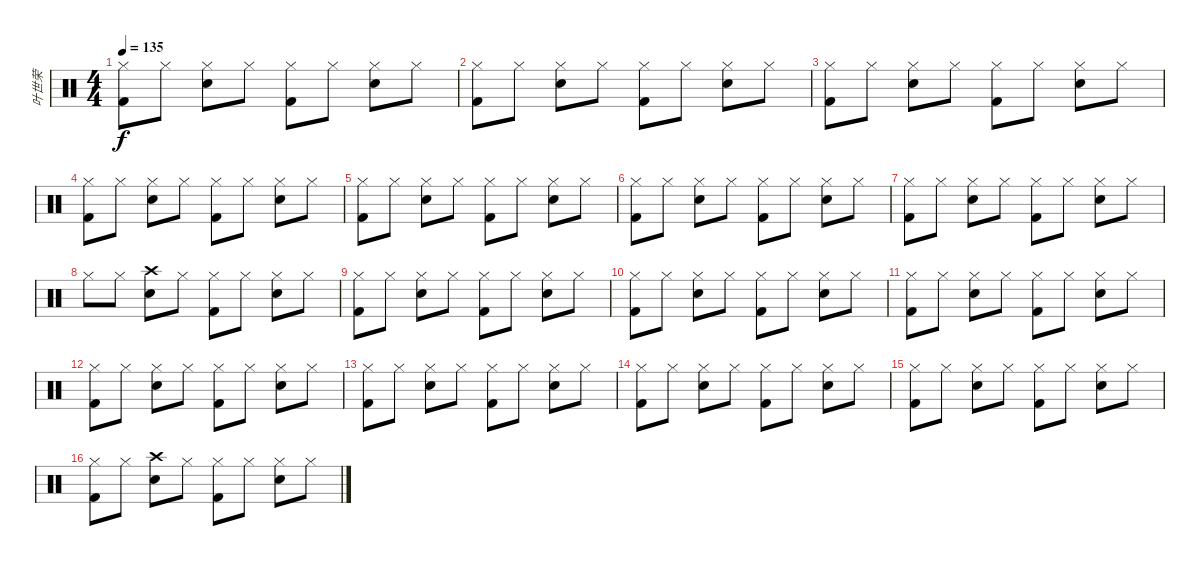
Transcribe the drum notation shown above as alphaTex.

\track ("叶世荣" "叶世荣") {instrument percussion}
\staff {score}
\articulation defaults
\ts (4 4)
\tempo 135
\clef neutral
\ks c
("Hi-Hat (closed)" "Kick (hit) 2").8{dy f} "Hi-Hat (closed)".8 ("Hi-Hat (closed)" "Electric Snare (hit)").8 "Hi-Hat (closed)".8 ("Hi-Hat (closed)" "Kick (hit) 2").8 "Hi-Hat (closed)".8 ("Hi-Hat (closed)" "Electric Snare (hit)").8 "Hi-Hat (closed)".8 |
("Hi-Hat (closed)" "Kick (hit) 2").8 "Hi-Hat (closed)".8 ("Hi-Hat (closed)" "Electric Snare (hit)").8 "Hi-Hat (closed)".8 ("Hi-Hat (closed)" "Kick (hit) 2").8 "Hi-Hat (closed)".8 ("Hi-Hat (closed)" "Electric Snare (hit)").8 "Hi-Hat (closed)".8 |
("Hi-Hat (closed)" "Kick (hit) 2").8 "Hi-Hat (closed)".8 ("Hi-Hat (closed)" "Electric Snare (hit)").8 "Hi-Hat (closed)".8 ("Hi-Hat (closed)" "Kick (hit) 2").8 "Hi-Hat (closed)".8 ("Hi-Hat (closed)" "Electric Snare (hit)").8 "Hi-Hat (closed)".8 |
("Hi-Hat (closed)" "Kick (hit) 2").8 "Hi-Hat (closed)".8 ("Hi-Hat (closed)" "Electric Snare (hit)").8 "Hi-Hat (closed)".8 ("Hi-Hat (closed)" "Kick (hit) 2").8 "Hi-Hat (closed)".8 ("Hi-Hat (closed)" "Electric Snare (hit)").8 "Hi-Hat (closed)".8 |
("Hi-Hat (closed)" "Kick (hit) 2").8 "Hi-Hat (closed)".8 ("Hi-Hat (closed)" "Electric Snare (hit)").8 "Hi-Hat (closed)".8 ("Hi-Hat (closed)" "Kick (hit) 2").8 "Hi-Hat (closed)".8 ("Hi-Hat (closed)" "Electric Snare (hit)").8 "Hi-Hat (closed)".8 |
("Hi-Hat (closed)" "Kick (hit) 2").8 "Hi-Hat (closed)".8 ("Hi-Hat (closed)" "Electric Snare (hit)").8 "Hi-Hat (closed)".8 ("Hi-Hat (closed)" "Kick (hit) 2").8 "Hi-Hat (closed)".8 ("Hi-Hat (closed)" "Electric Snare (hit)").8 "Hi-Hat (closed)".8 |
("Hi-Hat (closed)" "Kick (hit) 2").8 "Hi-Hat (closed)".8 ("Hi-Hat (closed)" "Electric Snare (hit)").8 "Hi-Hat (closed)".8 ("Hi-Hat (closed)" "Kick (hit) 2").8 "Hi-Hat (closed)".8 ("Hi-Hat (closed)" "Electric Snare (hit)").8 "Hi-Hat (closed)".8 |
"Hi-Hat (closed)".8 "Hi-Hat (closed)".8 ("Crash high (hit)" "Electric Snare (hit)").8 "Hi-Hat (closed)".8 ("Hi-Hat (closed)" "Kick (hit) 2").8 "Hi-Hat (closed)".8 ("Hi-Hat (closed)" "Electric Snare (hit)").8 "Hi-Hat (closed)".8 |
("Hi-Hat (closed)" "Kick (hit) 2").8 "Hi-Hat (closed)".8 ("Hi-Hat (closed)" "Electric Snare (hit)").8 "Hi-Hat (closed)".8 ("Hi-Hat (closed)" "Kick (hit) 2").8 "Hi-Hat (closed)".8 ("Hi-Hat (closed)" "Electric Snare (hit)").8 "Hi-Hat (closed)".8 |
("Hi-Hat (closed)" "Kick (hit) 2").8 "Hi-Hat (closed)".8 ("Hi-Hat (closed)" "Electric Snare (hit)").8 "Hi-Hat (closed)".8 ("Hi-Hat (closed)" "Kick (hit) 2").8 "Hi-Hat (closed)".8 ("Hi-Hat (closed)" "Electric Snare (hit)").8 "Hi-Hat (closed)".8 |
("Hi-Hat (closed)" "Kick (hit) 2").8 "Hi-Hat (closed)".8 ("Hi-Hat (closed)" "Electric Snare (hit)").8 "Hi-Hat (closed)".8 ("Hi-Hat (closed)" "Kick (hit) 2").8 "Hi-Hat (closed)".8 ("Hi-Hat (closed)" "Electric Snare (hit)").8 "Hi-Hat (closed)".8 |
("Hi-Hat (closed)" "Kick (hit) 2").8 "Hi-Hat (closed)".8 ("Hi-Hat (closed)" "Electric Snare (hit)").8 "Hi-Hat (closed)".8 ("Hi-Hat (closed)" "Kick (hit) 2").8 "Hi-Hat (closed)".8 ("Hi-Hat (closed)" "Electric Snare (hit)").8 "Hi-Hat (closed)".8 |
("Hi-Hat (closed)" "Kick (hit) 2").8 "Hi-Hat (closed)".8 ("Hi-Hat (closed)" "Electric Snare (hit)").8 "Hi-Hat (closed)".8 ("Hi-Hat (closed)" "Kick (hit) 2").8 "Hi-Hat (closed)".8 ("Hi-Hat (closed)" "Electric Snare (hit)").8 "Hi-Hat (closed)".8 |
("Hi-Hat (closed)" "Kick (hit) 2").8 "Hi-Hat (closed)".8 ("Hi-Hat (closed)" "Electric Snare (hit)").8 "Hi-Hat (closed)".8 ("Hi-Hat (closed)" "Kick (hit) 2").8 "Hi-Hat (closed)".8 ("Hi-Hat (closed)" "Electric Snare (hit)").8 "Hi-Hat (closed)".8 |
("Hi-Hat (closed)" "Kick (hit) 2").8 "Hi-Hat (closed)".8 ("Hi-Hat (closed)" "Electric Snare (hit)").8 "Hi-Hat (closed)".8 ("Hi-Hat (closed)" "Kick (hit) 2").8 "Hi-Hat (closed)".8 ("Hi-Hat (closed)" "Electric Snare (hit)").8 "Hi-Hat (closed)".8 |
("Hi-Hat (closed)" "Kick (hit) 2").8 "Hi-Hat (closed)".8 ("Crash high (hit)" "Electric Snare (hit)").8 "Hi-Hat (closed)".8 ("Hi-Hat (closed)" "Kick (hit) 2").8 "Hi-Hat (closed)".8 ("Hi-Hat (closed)" "Electric Snare (hit)").8 "Hi-Hat (closed)".8
